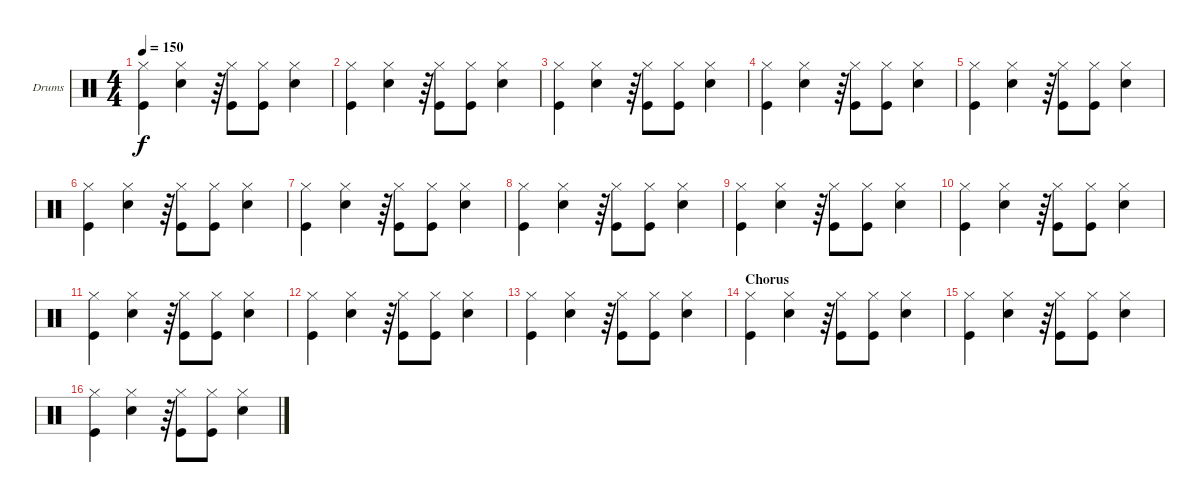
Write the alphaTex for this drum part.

\defaultSystemsLayout 4
\bracketExtendMode groupsimilarinstruments
\firstSystemTrackNameOrientation horizontal
\otherSystemsTrackNameOrientation horizontal
\track ("Drum" "Drums") {instrument percussion}
\staff {score}
\articulation defaults
\ts (4 4)
\tempo 150
\clef neutral
\ks c
("Hi-Hat (closed)" "Kick (hit)").4{dy f} ("Hi-Hat (closed)" "Snare (hit) 2").4 r.64 ("Hi-Hat (closed)" "Kick (hit)").8 ("Hi-Hat (closed)" "Kick (hit)").8 ("Hi-Hat (closed)" "Snare (hit) 2").4 |
("Hi-Hat (closed)" "Kick (hit)").4 ("Hi-Hat (closed)" "Snare (hit) 2").4 r.64 ("Hi-Hat (closed)" "Kick (hit)").8 ("Hi-Hat (closed)" "Kick (hit)").8 ("Hi-Hat (closed)" "Snare (hit) 2").4 |
("Hi-Hat (closed)" "Kick (hit)").4 ("Hi-Hat (closed)" "Snare (hit) 2").4 r.64 ("Hi-Hat (closed)" "Kick (hit)").8 ("Hi-Hat (closed)" "Kick (hit)").8 ("Hi-Hat (closed)" "Snare (hit) 2").4 |
("Hi-Hat (closed)" "Kick (hit)").4 ("Hi-Hat (closed)" "Snare (hit) 2").4 r.64 ("Hi-Hat (closed)" "Kick (hit)").8 ("Hi-Hat (closed)" "Kick (hit)").8 ("Hi-Hat (closed)" "Snare (hit) 2").4 |
("Hi-Hat (closed)" "Kick (hit)").4 ("Hi-Hat (closed)" "Snare (hit) 2").4 r.64 ("Hi-Hat (closed)" "Kick (hit)").8 ("Hi-Hat (closed)" "Kick (hit)").8 ("Hi-Hat (closed)" "Snare (hit) 2").4 |
("Hi-Hat (closed)" "Kick (hit)").4 ("Hi-Hat (closed)" "Snare (hit) 2").4 r.64 ("Hi-Hat (closed)" "Kick (hit)").8 ("Hi-Hat (closed)" "Kick (hit)").8 ("Hi-Hat (closed)" "Snare (hit) 2").4 |
("Hi-Hat (closed)" "Kick (hit)").4 ("Hi-Hat (closed)" "Snare (hit) 2").4 r.64 ("Hi-Hat (closed)" "Kick (hit)").8 ("Hi-Hat (closed)" "Kick (hit)").8 ("Hi-Hat (closed)" "Snare (hit) 2").4 |
("Hi-Hat (closed)" "Kick (hit)").4 ("Hi-Hat (closed)" "Snare (hit) 2").4 r.64 ("Hi-Hat (closed)" "Kick (hit)").8 ("Hi-Hat (closed)" "Kick (hit)").8 ("Hi-Hat (closed)" "Snare (hit) 2").4 |
("Hi-Hat (closed)" "Kick (hit)").4 ("Hi-Hat (closed)" "Snare (hit) 2").4 r.64 ("Hi-Hat (closed)" "Kick (hit)").8 ("Hi-Hat (closed)" "Kick (hit)").8 ("Hi-Hat (closed)" "Snare (hit) 2").4 |
("Hi-Hat (closed)" "Kick (hit)").4 ("Hi-Hat (closed)" "Snare (hit) 2").4 r.64 ("Hi-Hat (closed)" "Kick (hit)").8 ("Hi-Hat (closed)" "Kick (hit)").8 ("Hi-Hat (closed)" "Snare (hit) 2").4 |
("Hi-Hat (closed)" "Kick (hit)").4 ("Hi-Hat (closed)" "Snare (hit) 2").4 r.64 ("Hi-Hat (closed)" "Kick (hit)").8 ("Hi-Hat (closed)" "Kick (hit)").8 ("Hi-Hat (closed)" "Snare (hit) 2").4 |
("Hi-Hat (closed)" "Kick (hit)").4 ("Hi-Hat (closed)" "Snare (hit) 2").4 r.64 ("Hi-Hat (closed)" "Kick (hit)").8 ("Hi-Hat (closed)" "Kick (hit)").8 ("Hi-Hat (closed)" "Snare (hit) 2").4 |
("Hi-Hat (closed)" "Kick (hit)").4 ("Hi-Hat (closed)" "Snare (hit) 2").4 r.64 ("Hi-Hat (closed)" "Kick (hit)").8 ("Hi-Hat (closed)" "Kick (hit)").8 ("Hi-Hat (closed)" "Snare (hit) 2").4 |
\section ("" "Chorus")
("Hi-Hat (closed)" "Kick (hit)").4 ("Hi-Hat (closed)" "Snare (hit) 2").4 r.64 ("Hi-Hat (closed)" "Kick (hit)").8 ("Hi-Hat (closed)" "Kick (hit)").8 ("Hi-Hat (closed)" "Snare (hit) 2").4 |
("Hi-Hat (closed)" "Kick (hit)").4 ("Hi-Hat (closed)" "Snare (hit) 2").4 r.64 ("Hi-Hat (closed)" "Kick (hit)").8 ("Hi-Hat (closed)" "Kick (hit)").8 ("Hi-Hat (closed)" "Snare (hit) 2").4 |
("Hi-Hat (closed)" "Kick (hit)").4 ("Hi-Hat (closed)" "Snare (hit) 2").4 r.64 ("Hi-Hat (closed)" "Kick (hit)").8 ("Hi-Hat (closed)" "Kick (hit)").8 ("Hi-Hat (closed)" "Snare (hit) 2").4
